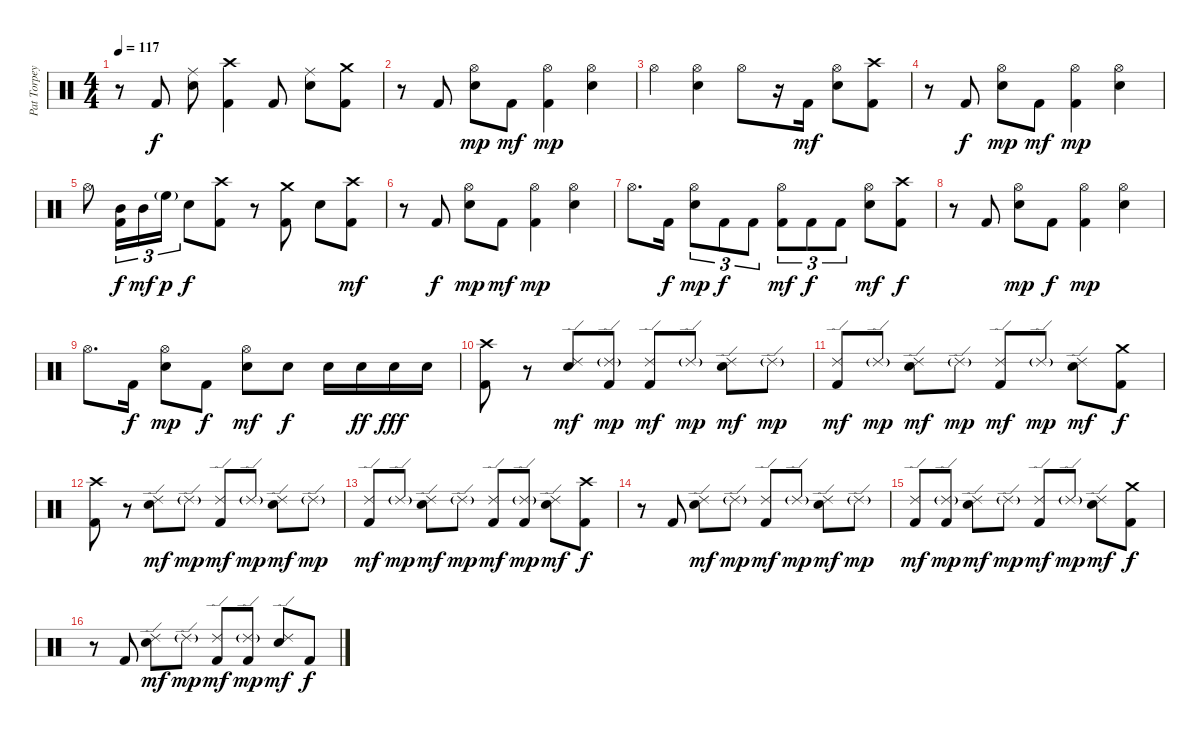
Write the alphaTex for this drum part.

\track ("Pat Torpey" "Pat Torpey") {instrument percussion}
\staff {score}
\articulation defaults
\ts (4 4)
\tempo 117
\clef neutral
\ks c
r.8{dy f} "Kick (hit) 2".8 ("Ride (middle)" "Electric Snare (hit)").8 ("Crash high (hit)" "Kick (hit) 2").4 "Kick (hit) 2".8 ("Ride (middle)" "Electric Snare (hit)").8 ("Crash medium (hit)" "Kick (hit) 2").8 |
r.8 "Kick (hit) 2".8 ("Hi-Hat (open)" "Electric Snare (hit)").8{dy mp} "Kick (hit) 2".8{dy mf} ("Hi-Hat (open)" "Kick (hit) 2").4{dy mp} ("Hi-Hat (open)" "Electric Snare (hit)").4 |
"Hi-Hat (open)".4 ("Hi-Hat (open)" "Electric Snare (hit)").4 "Hi-Hat (open)".8 r.16 "Kick (hit) 2".16{dy mf} ("Hi-Hat (open)" "Electric Snare (hit)").8 ("Crash high (hit)" "Kick (hit) 2").8 |
r.8 "Kick (hit) 2".8{dy f} ("Hi-Hat (open)" "Electric Snare (hit)").8{dy mp} "Kick (hit) 2".8{dy mf} ("Hi-Hat (open)" "Kick (hit) 2").4{dy mp} ("Hi-Hat (open)" "Electric Snare (hit)").4 |
"Hi-Hat (open)".8 ("Mid Tom (hit)" "Kick (hit) 2").16{tu (3 2) dy f} "Mid Tom (hit)".16{tu (3 2) dy mf} "High Floor Tom (hit)"{g}.16{tu (3 2) dy p} "Electric Snare (hit)".8{dy f} ("Crash high (hit)" "Kick (hit) 2").8 r.8 ("Crash medium (hit)" "Kick (hit) 2").8 "Electric Snare (hit)".8 ("Crash high (hit)" "Kick (hit) 2").8{dy mf} |
r.8 "Kick (hit) 2".8{dy f} ("Hi-Hat (open)" "Electric Snare (hit)").8{dy mp} "Kick (hit) 2".8{dy mf} ("Hi-Hat (open)" "Kick (hit) 2").4{dy mp} ("Hi-Hat (open)" "Electric Snare (hit)").4 |
"Hi-Hat (open)".8{d} "Kick (hit) 2".16{dy f} ("Hi-Hat (open)" "Electric Snare (hit)").8{tu (3 2) dy mp} "Kick (hit) 2".8{tu (3 2) dy f} "Kick (hit) 2".8{tu (3 2)} ("Hi-Hat (open)" "Kick (hit) 2").8{tu (3 2) dy mf} "Kick (hit) 2".8{tu (3 2) dy f} "Kick (hit) 2".8{tu (3 2)} ("Hi-Hat (open)" "Electric Snare (hit)").8{dy mf} ("Crash high (hit)" "Kick (hit) 2").8{dy f} |
r.8 "Kick (hit) 2".8 ("Hi-Hat (open)" "Electric Snare (hit)").8{dy mp} "Kick (hit) 2".8{dy f} ("Hi-Hat (open)" "Kick (hit) 2").4{dy mp} ("Hi-Hat (open)" "Electric Snare (hit)").4 |
"Hi-Hat (open)".8{d} "Kick (hit) 2".16{dy f} ("Hi-Hat (open)" "Electric Snare (hit)").8{dy mp} "Kick (hit) 2".8{dy f} ("Hi-Hat (open)" "Electric Snare (hit)").8{dy mf} "Electric Snare (hit)".8{dy f} "Electric Snare (hit)".16 "Electric Snare (hit)".16{dy ff} "Electric Snare (hit)".16{dy fff} "Electric Snare (hit)".16 |
("Crash high (hit)" "Kick (hit) 2").8 r.8 ("Ride (edge) 2" "Electric Snare (hit)").8{dy mf} ("Ride (edge) 2"{g} "Kick (hit) 2").8{dy mp} ("Ride (edge) 2" "Kick (hit) 2").8{dy mf} "Ride (edge) 2"{g}.8{dy mp} ("Ride (edge) 2" "Electric Snare (hit)").8{dy mf} "Ride (edge) 2"{g}.8{dy mp} |
("Ride (edge) 2" "Kick (hit) 2").8{dy mf} "Ride (edge) 2"{g}.8{dy mp} ("Ride (edge) 2" "Electric Snare (hit)").8{dy mf} "Ride (edge) 2"{g}.8{dy mp} ("Ride (edge) 2" "Kick (hit) 2").8{dy mf} "Ride (edge) 2"{g}.8{dy mp} ("Ride (edge) 2" "Electric Snare (hit)").8{dy mf} ("Crash medium (hit)" "Kick (hit) 2").8{dy f} |
("Crash high (hit)" "Kick (hit) 2").8 r.8 ("Ride (edge) 2" "Electric Snare (hit)").8{dy mf} "Ride (edge) 2"{g}.8{dy mp} ("Ride (edge) 2" "Kick (hit) 2").8{dy mf} "Ride (edge) 2"{g}.8{dy mp} ("Ride (edge) 2" "Electric Snare (hit)").8{dy mf} "Ride (edge) 2"{g}.8{dy mp} |
("Ride (edge) 2" "Kick (hit) 2").8{dy mf} "Ride (edge) 2"{g}.8{dy mp} ("Ride (edge) 2" "Electric Snare (hit)").8{dy mf} "Ride (edge) 2"{g}.8{dy mp} ("Ride (edge) 2" "Kick (hit) 2").8{dy mf} ("Ride (edge) 2"{g} "Kick (hit) 2").8{dy mp} ("Ride (edge) 2" "Electric Snare (hit)").8{dy mf} ("Crash high (hit)" "Kick (hit) 2").8{dy f} |
r.8 "Kick (hit) 2".8 ("Ride (edge) 2" "Electric Snare (hit)").8{dy mf} "Ride (edge) 2"{g}.8{dy mp} ("Ride (edge) 2" "Kick (hit) 2").8{dy mf} "Ride (edge) 2"{g}.8{dy mp} ("Ride (edge) 2" "Electric Snare (hit)").8{dy mf} "Ride (edge) 2"{g}.8{dy mp} |
("Ride (edge) 2" "Kick (hit) 2").8{dy mf} ("Ride (edge) 2"{g} "Kick (hit) 2").8{dy mp} ("Ride (edge) 2" "Electric Snare (hit)").8{dy mf} "Ride (edge) 2"{g}.8{dy mp} ("Ride (edge) 2" "Kick (hit) 2").8{dy mf} "Ride (edge) 2"{g}.8{dy mp} ("Ride (edge) 2" "Electric Snare (hit)").8{dy mf} ("Crash medium (hit)" "Kick (hit) 2").8{dy f} |
r.8 "Kick (hit) 2".8 ("Ride (edge) 2" "Electric Snare (hit)").8{dy mf} "Ride (edge) 2"{g}.8{dy mp} ("Ride (edge) 2" "Kick (hit) 2").8{dy mf} ("Ride (edge) 2"{g} "Kick (hit) 2").8{dy mp} ("Ride (edge) 2" "Electric Snare (hit)").8{dy mf} "Kick (hit) 2".8{dy f}
